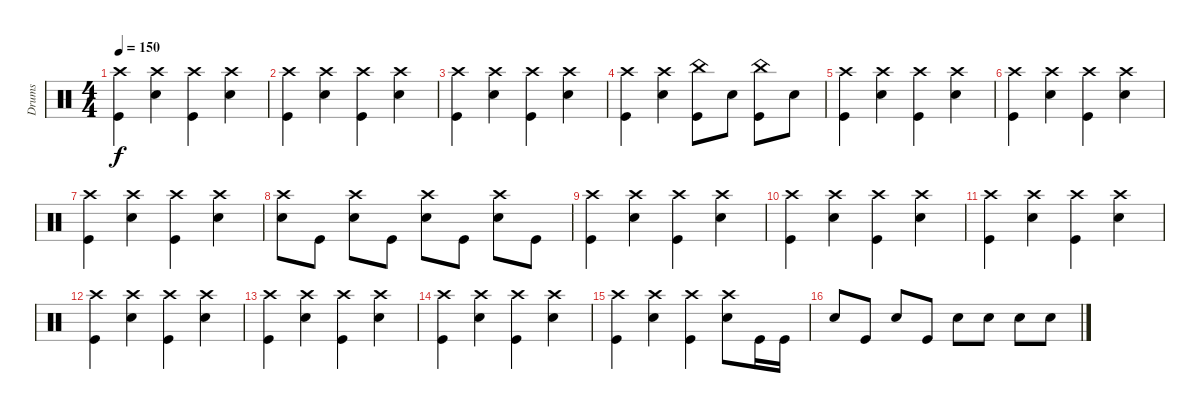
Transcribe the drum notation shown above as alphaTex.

\track ("Drums" "Drums") {instrument percussion}
\staff {score}
\articulation defaults
\ts (4 4)
\tempo 150
\clef neutral
\ks c
("Kick (hit)" "Crash high (hit)").4{dy f} ("Snare (hit) 2" "Crash high (hit)").4 ("Kick (hit)" "Crash high (hit)").4 ("Snare (hit) 2" "Crash high (hit)").4 |
("Kick (hit)" "Crash high (hit)").4 ("Snare (hit) 2" "Crash high (hit)").4 ("Kick (hit)" "Crash high (hit)").4 ("Snare (hit) 2" "Crash high (hit)").4 |
("Kick (hit)" "Crash high (hit)").4 ("Snare (hit) 2" "Crash high (hit)").4 ("Kick (hit)" "Crash high (hit)").4 ("Snare (hit) 2" "Crash high (hit)").4 |
("Kick (hit)" "Crash high (hit)").4 ("Snare (hit) 2" "Crash high (hit)").4 ("Kick (hit)" "China (hit)").8 "Snare (hit) 2".8 ("Kick (hit)" "China (hit)").8 "Snare (hit) 2".8 |
("Kick (hit)" "Crash high (hit)").4 ("Snare (hit) 2" "Crash high (hit)").4 ("Kick (hit)" "Crash high (hit)").4 ("Snare (hit) 2" "Crash high (hit)").4 |
("Kick (hit)" "Crash high (hit)").4 ("Snare (hit) 2" "Crash high (hit)").4 ("Kick (hit)" "Crash high (hit)").4 ("Snare (hit) 2" "Crash high (hit)").4 |
("Kick (hit)" "Crash high (hit)").4 ("Snare (hit) 2" "Crash high (hit)").4 ("Kick (hit)" "Crash high (hit)").4 ("Snare (hit) 2" "Crash high (hit)").4 |
("Crash high (hit)" "Snare (hit) 2").8 "Kick (hit)".8 ("Crash high (hit)" "Snare (hit) 2").8 "Kick (hit)".8 ("Crash high (hit)" "Snare (hit) 2").8 "Kick (hit)".8 ("Crash high (hit)" "Snare (hit) 2").8 "Kick (hit)".8 |
("Kick (hit)" "Crash high (hit)").4 ("Snare (hit) 2" "Crash high (hit)").4 ("Kick (hit)" "Crash high (hit)").4 ("Snare (hit) 2" "Crash high (hit)").4 |
("Kick (hit)" "Crash high (hit)").4 ("Snare (hit) 2" "Crash high (hit)").4 ("Kick (hit)" "Crash high (hit)").4 ("Snare (hit) 2" "Crash high (hit)").4 |
("Kick (hit)" "Crash high (hit)").4 ("Snare (hit) 2" "Crash high (hit)").4 ("Kick (hit)" "Crash high (hit)").4 ("Snare (hit) 2" "Crash high (hit)").4 |
("Kick (hit)" "Crash high (hit)").4 ("Snare (hit) 2" "Crash high (hit)").4 ("Kick (hit)" "Crash high (hit)").4 ("Snare (hit) 2" "Crash high (hit)").4 |
("Kick (hit)" "Crash high (hit)").4 ("Snare (hit) 2" "Crash high (hit)").4 ("Kick (hit)" "Crash high (hit)").4 ("Snare (hit) 2" "Crash high (hit)").4 |
("Kick (hit)" "Crash high (hit)").4 ("Snare (hit) 2" "Crash high (hit)").4 ("Kick (hit)" "Crash high (hit)").4 ("Snare (hit) 2" "Crash high (hit)").4 |
("Kick (hit)" "Crash high (hit)").4 ("Snare (hit) 2" "Crash high (hit)").4 ("Kick (hit)" "Crash high (hit)").4 ("Snare (hit) 2" "Crash high (hit)").8 "Kick (hit)".16 "Kick (hit)".16 |
"Snare (hit) 2".8 "Kick (hit)".8 "Snare (hit) 2".8 "Kick (hit)".8 "Snare (hit) 2".8 "Snare (hit) 2".8 "Snare (hit) 2".8 "Snare (hit) 2".8
